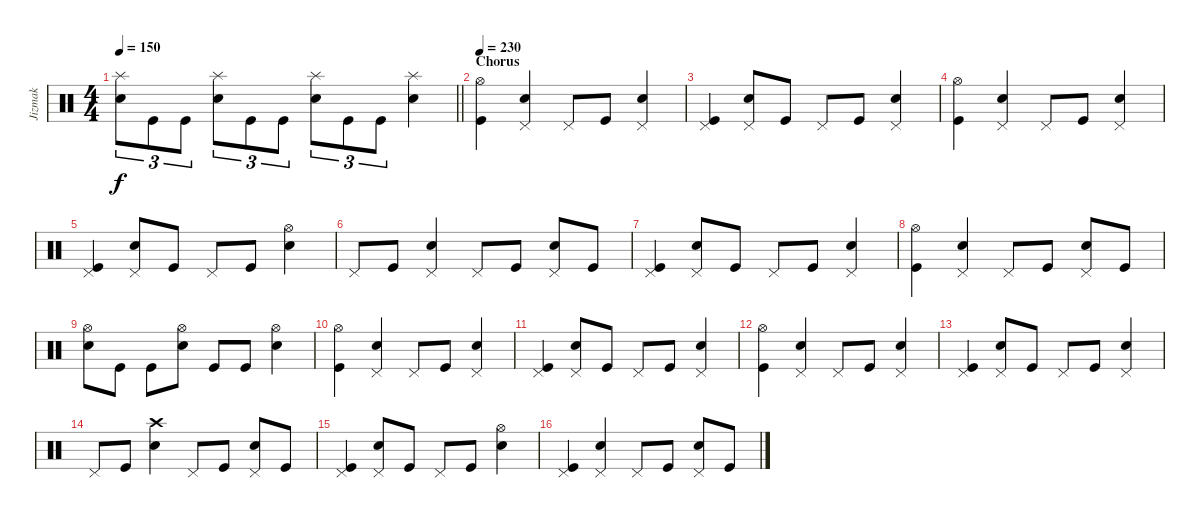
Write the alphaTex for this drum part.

\track ("Jizmak" "Jizmak") {instrument percussion}
\staff {score}
\articulation defaults
\ts (4 4)
\tempo 150
\clef neutral
\barLineRight lightlight
\ks c
("Splash (hit)" "Snare (hit) 2").8{tu (3 2) dy f} "Kick (hit)".8{tu (3 2)} "Kick (hit)".8{tu (3 2)} ("Splash (hit)" "Snare (hit) 2").8{tu (3 2)} "Kick (hit)".8{tu (3 2)} "Kick (hit)".8{tu (3 2)} ("Splash (hit)" "Snare (hit) 2").8{tu (3 2)} "Kick (hit)".8{tu (3 2)} "Kick (hit)".8{tu (3 2)} ("Splash (hit)" "Snare (hit) 2").4 |
\section ("" "Chorus")
\tempo 230
("Hi-Hat (open)" "Kick (hit)").4 ("Pedal Hi-Hat (hit)" "Snare (hit) 2").4 "Pedal Hi-Hat (hit)".8 "Kick (hit)".8 ("Pedal Hi-Hat (hit)" "Snare (hit) 2").4 |
("Pedal Hi-Hat (hit)" "Kick (hit)").4 ("Pedal Hi-Hat (hit)" "Snare (hit) 2").8 "Kick (hit)".8 "Pedal Hi-Hat (hit)".8 "Kick (hit)".8 ("Pedal Hi-Hat (hit)" "Snare (hit) 2").4 |
("Hi-Hat (open)" "Kick (hit)").4 ("Pedal Hi-Hat (hit)" "Snare (hit) 2").4 "Pedal Hi-Hat (hit)".8 "Kick (hit)".8 ("Pedal Hi-Hat (hit)" "Snare (hit) 2").4 |
("Pedal Hi-Hat (hit)" "Kick (hit)").4 ("Pedal Hi-Hat (hit)" "Snare (hit) 2").8 "Kick (hit)".8 "Pedal Hi-Hat (hit)".8 "Kick (hit)".8 ("Hi-Hat (open)" "Snare (hit) 2").4 |
"Pedal Hi-Hat (hit)".8 "Kick (hit)".8 ("Pedal Hi-Hat (hit)" "Snare (hit) 2").4 "Pedal Hi-Hat (hit)".8 "Kick (hit)".8 ("Pedal Hi-Hat (hit)" "Snare (hit) 2").8 "Kick (hit)".8 |
("Pedal Hi-Hat (hit)" "Kick (hit)").4 ("Pedal Hi-Hat (hit)" "Snare (hit) 2").8 "Kick (hit)".8 "Pedal Hi-Hat (hit)".8 "Kick (hit)".8 ("Pedal Hi-Hat (hit)" "Snare (hit) 2").4 |
("Hi-Hat (open)" "Kick (hit)").4 ("Pedal Hi-Hat (hit)" "Snare (hit) 2").4 "Pedal Hi-Hat (hit)".8 "Kick (hit)".8 ("Pedal Hi-Hat (hit)" "Snare (hit) 2").8 "Kick (hit)".8 |
("Hi-Hat (open)" "Snare (hit) 2").8 "Kick (hit)".8 "Kick (hit)".8 ("Hi-Hat (open)" "Snare (hit) 2").8 "Kick (hit)".8 "Kick (hit)".8 ("Hi-Hat (open)" "Snare (hit) 2").4 |
("Hi-Hat (open)" "Kick (hit)").4 ("Pedal Hi-Hat (hit)" "Snare (hit) 2").4 "Pedal Hi-Hat (hit)".8 "Kick (hit)".8 ("Pedal Hi-Hat (hit)" "Snare (hit) 2").4 |
("Pedal Hi-Hat (hit)" "Kick (hit)").4 ("Pedal Hi-Hat (hit)" "Snare (hit) 2").8 "Kick (hit)".8 "Pedal Hi-Hat (hit)".8 "Kick (hit)".8 ("Pedal Hi-Hat (hit)" "Snare (hit) 2").4 |
("Hi-Hat (open)" "Kick (hit)").4 ("Pedal Hi-Hat (hit)" "Snare (hit) 2").4 "Pedal Hi-Hat (hit)".8 "Kick (hit)".8 ("Pedal Hi-Hat (hit)" "Snare (hit) 2").4 |
("Pedal Hi-Hat (hit)" "Kick (hit)").4 ("Pedal Hi-Hat (hit)" "Snare (hit) 2").8 "Kick (hit)".8 "Pedal Hi-Hat (hit)".8 "Kick (hit)".8 ("Pedal Hi-Hat (hit)" "Snare (hit) 2").4 |
"Pedal Hi-Hat (hit)".8 "Kick (hit)".8 ("Crash high (hit)" "Snare (hit) 2").4 "Pedal Hi-Hat (hit)".8 "Kick (hit)".8 ("Pedal Hi-Hat (hit)" "Snare (hit) 2").8 "Kick (hit)".8 |
("Pedal Hi-Hat (hit)" "Kick (hit)").4 ("Pedal Hi-Hat (hit)" "Snare (hit) 2").8 "Kick (hit)".8 "Pedal Hi-Hat (hit)".8 "Kick (hit)".8 ("Hi-Hat (open)" "Snare (hit) 2").4 |
("Pedal Hi-Hat (hit)" "Kick (hit)").4 ("Pedal Hi-Hat (hit)" "Snare (hit) 2").4 "Pedal Hi-Hat (hit)".8 "Kick (hit)".8 ("Pedal Hi-Hat (hit)" "Snare (hit) 2").8 "Kick (hit)".8
